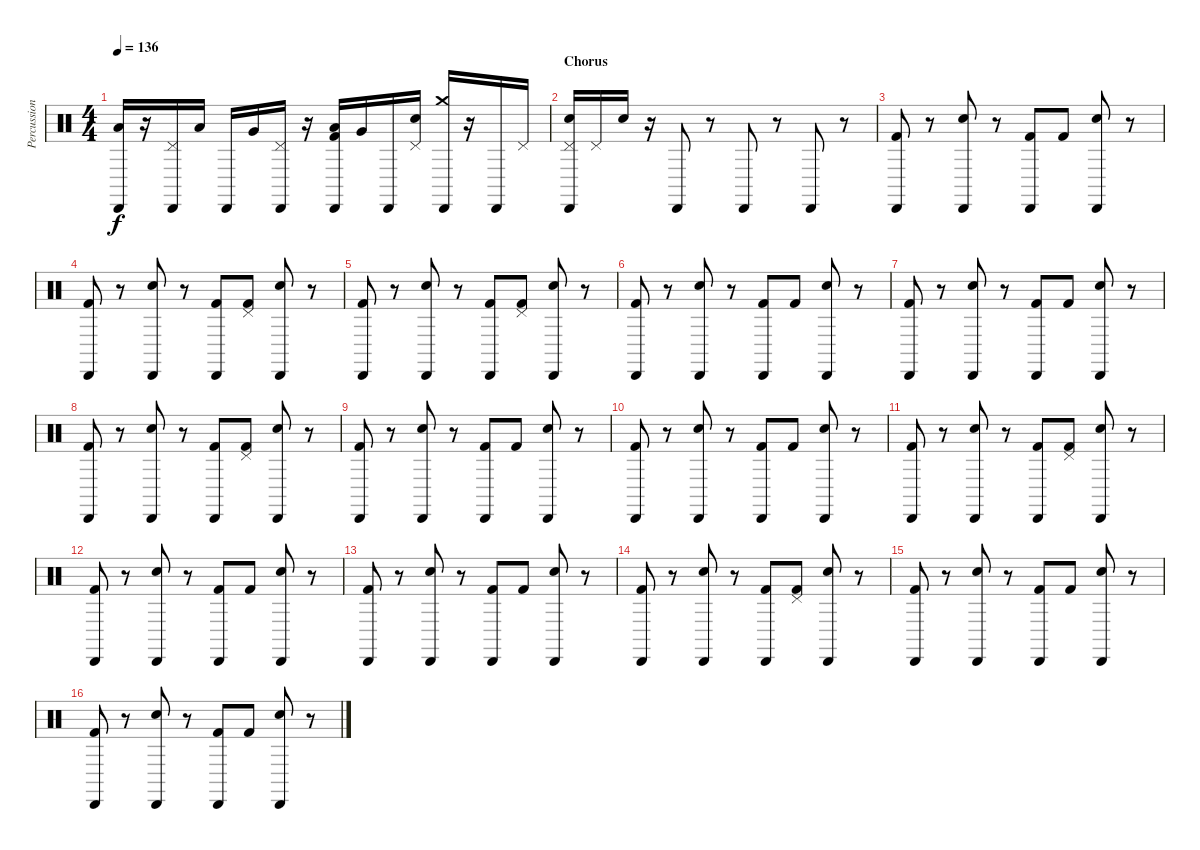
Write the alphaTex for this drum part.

\track ("Percussion 2" "Percussion") {instrument percussion}
\staff {score}
\articulation defaults
\ts (4 4)
\tempo 136
\clef neutral
\ks c
("Low Floor Tom (hit)" "Cabasa (hit)").16{dy f balance 0} r.16 ("Pedal Hi-Hat (hit)" "Cabasa (hit)").16 "Low Floor Tom (hit)".16 "Cabasa (hit)".16 "Very Low Tom (hit)".16 ("Pedal Hi-Hat (hit)" "Cabasa (hit)").16 r.16 ("Kick (hit) 2" "Low Floor Tom (hit)" "Cabasa (hit)").16 "Very Low Tom (hit)".16 "Cabasa (hit)".16 ("Snare (hit) 2" "Pedal Hi-Hat (hit)").16 ("Crash medium (hit)" "Cabasa (hit)").16 r.16 "Cabasa (hit)".16 "Pedal Hi-Hat (hit)".16 |
\section ("" "Chorus")
("Electric Snare (hit)" "Pedal Hi-Hat (hit)" "Cabasa (hit)").16{balance 8} "Pedal Hi-Hat (hit)".16 "Snare (hit) 2".16 r.16 "Cabasa (hit)".8 r.8 "Cabasa (hit)".8 r.8 "Cabasa (hit)".8 r.8 |
("Kick (hit) 2" "Cabasa (hit)").8 r.8 ("Snare (hit) 2" "Cabasa (hit)").8 r.8 ("Kick (hit) 2" "Cabasa (hit)").8 "Kick (hit) 2".8 ("Snare (hit) 2" "Cabasa (hit)").8 r.8 |
("Kick (hit) 2" "Cabasa (hit)").8 r.8 ("Snare (hit) 2" "Cabasa (hit)").8 r.8 ("Kick (hit) 2" "Cabasa (hit)").8 ("Pedal Hi-Hat (hit)" "Kick (hit) 2").8 ("Snare (hit) 2" "Cabasa (hit)").8 r.8 |
("Kick (hit) 2" "Cabasa (hit)").8 r.8 ("Snare (hit) 2" "Cabasa (hit)").8 r.8 ("Kick (hit) 2" "Cabasa (hit)").8 ("Pedal Hi-Hat (hit)" "Kick (hit) 2").8 ("Snare (hit) 2" "Cabasa (hit)").8 r.8 |
("Kick (hit) 2" "Cabasa (hit)").8 r.8 ("Snare (hit) 2" "Cabasa (hit)").8 r.8 ("Kick (hit) 2" "Cabasa (hit)").8 "Kick (hit) 2".8 ("Snare (hit) 2" "Cabasa (hit)").8 r.8 |
("Kick (hit) 2" "Cabasa (hit)").8 r.8 ("Snare (hit) 2" "Cabasa (hit)").8 r.8 ("Kick (hit) 2" "Cabasa (hit)").8 "Kick (hit) 2".8 ("Snare (hit) 2" "Cabasa (hit)").8 r.8 |
("Kick (hit) 2" "Cabasa (hit)").8 r.8 ("Snare (hit) 2" "Cabasa (hit)").8 r.8 ("Kick (hit) 2" "Cabasa (hit)").8 ("Pedal Hi-Hat (hit)" "Kick (hit) 2").8 ("Snare (hit) 2" "Cabasa (hit)").8 r.8 |
("Kick (hit) 2" "Cabasa (hit)").8 r.8 ("Snare (hit) 2" "Cabasa (hit)").8 r.8 ("Kick (hit) 2" "Cabasa (hit)").8 "Kick (hit) 2".8 ("Snare (hit) 2" "Cabasa (hit)").8 r.8 |
("Kick (hit) 2" "Cabasa (hit)").8 r.8 ("Snare (hit) 2" "Cabasa (hit)").8 r.8 ("Kick (hit) 2" "Cabasa (hit)").8 "Kick (hit) 2".8 ("Snare (hit) 2" "Cabasa (hit)").8 r.8 |
("Kick (hit) 2" "Cabasa (hit)").8 r.8 ("Snare (hit) 2" "Cabasa (hit)").8 r.8 ("Kick (hit) 2" "Cabasa (hit)").8 ("Pedal Hi-Hat (hit)" "Kick (hit) 2").8 ("Snare (hit) 2" "Cabasa (hit)").8 r.8 |
("Kick (hit) 2" "Cabasa (hit)").8 r.8 ("Snare (hit) 2" "Cabasa (hit)").8 r.8 ("Kick (hit) 2" "Cabasa (hit)").8 "Kick (hit) 2".8 ("Snare (hit) 2" "Cabasa (hit)").8 r.8 |
("Kick (hit) 2" "Cabasa (hit)").8 r.8 ("Snare (hit) 2" "Cabasa (hit)").8 r.8 ("Kick (hit) 2" "Cabasa (hit)").8 "Kick (hit) 2".8 ("Snare (hit) 2" "Cabasa (hit)").8 r.8 |
("Kick (hit) 2" "Cabasa (hit)").8 r.8 ("Snare (hit) 2" "Cabasa (hit)").8 r.8 ("Kick (hit) 2" "Cabasa (hit)").8 ("Pedal Hi-Hat (hit)" "Kick (hit) 2").8 ("Snare (hit) 2" "Cabasa (hit)").8 r.8 |
("Kick (hit) 2" "Cabasa (hit)").8 r.8 ("Snare (hit) 2" "Cabasa (hit)").8 r.8 ("Kick (hit) 2" "Cabasa (hit)").8 "Kick (hit) 2".8 ("Snare (hit) 2" "Cabasa (hit)").8 r.8 |
("Kick (hit) 2" "Cabasa (hit)").8 r.8 ("Snare (hit) 2" "Cabasa (hit)").8 r.8 ("Kick (hit) 2" "Cabasa (hit)").8 "Kick (hit) 2".8 ("Snare (hit) 2" "Cabasa (hit)").8 r.8
